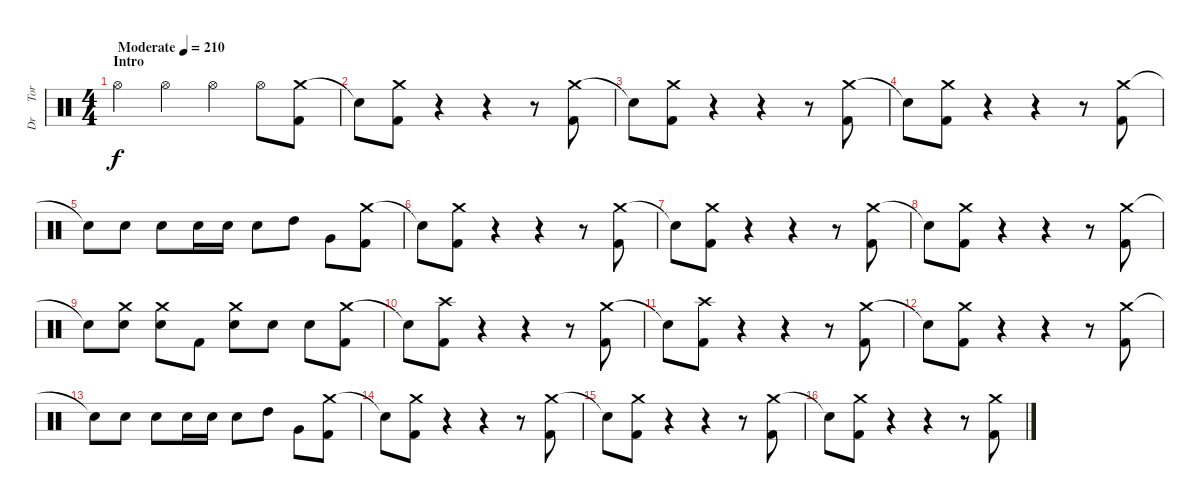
\track ("Dr     Tora" "Dr     Tor") {instrument percussion}
\staff {score}
\articulation defaults
\ts (4 4)
\section ("" "Intro")
\tempo (210 "Moderate")
\clef neutral
\ks c "Hi-Hat (open)".4{dy f} "Hi-Hat (open)".4 "Hi-Hat (open)".4 "Hi-Hat (open)".8
("Crash medium (hit)" "Kick (hit) 2").8 |
"Snare (hit)"{t}.8 ("Crash medium (hit)" "Kick (hit) 2").8 r.4 r.4 r.8 ("Crash medium (hit)" "Kick (hit) 2").8 |
"Snare (hit)"{t}.8 ("Crash medium (hit)" "Kick (hit) 2").8 r.4 r.4 r.8 ("Crash medium (hit)" "Kick (hit) 2").8 |
"Snare (hit)"{t}.8 ("Crash medium (hit)" "Kick (hit) 2").8 r.4 r.4 r.8 ("Crash medium (hit)" "Kick (hit) 2").8 |
"Snare (hit)"{t}.8 "Electric Snare (hit)".8 "Electric Snare (hit)".8 "Electric Snare (hit)".16 "Electric Snare (hit)".16 "Electric Snare (hit)".8 "High Tom (hit)".8 "Very Low Tom (hit)".8 ("Crash medium (hit)" "Kick (hit) 2").8 |
"Snare (hit)"{t}.8 ("Crash medium (hit)" "Kick (hit) 2").8 r.4 r.4 r.8 ("Crash medium (hit)" "Kick (hit) 2").8 |
"Snare (hit)"{t}.8 ("Crash medium (hit)" "Kick (hit) 2").8 r.4 r.4 r.8 ("Crash medium (hit)" "Kick (hit) 2").8 |
"Snare (hit)"{t}.8 ("Crash medium (hit)" "Kick (hit) 2").8 r.4 r.4 r.8 ("Crash medium (hit)" "Kick (hit) 2").8 |
"Snare (hit)"{t}.8 ("Crash medium (hit)" "Electric Snare (hit)").8 ("Crash medium (hit)" "Electric Snare (hit)").8 "Kick (hit) 2".8 ("Crash medium (hit)" "Electric Snare (hit)").8 "Electric Snare (hit)".8 "Electric Snare (hit)".8 ("Crash medium (hit)" "Kick (hit) 2").8 |
"Snare (hit)"{t}.8 ("Crash high (hit)" "Kick (hit) 2").8 r.4 r.4 r.8 ("Crash medium (hit)" "Kick (hit) 2").8 |
"Snare (hit)"{t}.8 ("Crash high (hit)" "Kick (hit) 2").8 r.4 r.4 r.8 ("Crash medium (hit)" "Kick (hit) 2").8 |
"Snare (hit)"{t}.8 ("Crash medium (hit)" "Kick (hit) 2").8 r.4 r.4 r.8 ("Crash medium (hit)" "Kick (hit) 2").8 |
"Snare (hit)"{t}.8 "Electric Snare (hit)".8 "Electric Snare (hit)".8 "Electric Snare (hit)".16 "Electric Snare (hit)".16 "Electric Snare (hit)".8 "High Tom (hit)".8 "Very Low Tom (hit)".8 ("Crash medium (hit)" "Kick (hit) 2").8 |
"Snare (hit)"{t}.8 ("Crash medium (hit)" "Kick (hit) 2").8 r.4 r.4 r.8 ("Crash medium (hit)" "Kick (hit) 2").8 |
"Snare (hit)"{t}.8 ("Crash medium (hit)" "Kick (hit) 2").8 r.4 r.4 r.8 ("Crash medium (hit)" "Kick (hit) 2").8 |
"Snare (hit)"{t}.8 ("Crash medium (hit)" "Kick (hit) 2").8 r.4 r.4 r.8 ("Crash medium (hit)" "Kick (hit) 2").8
